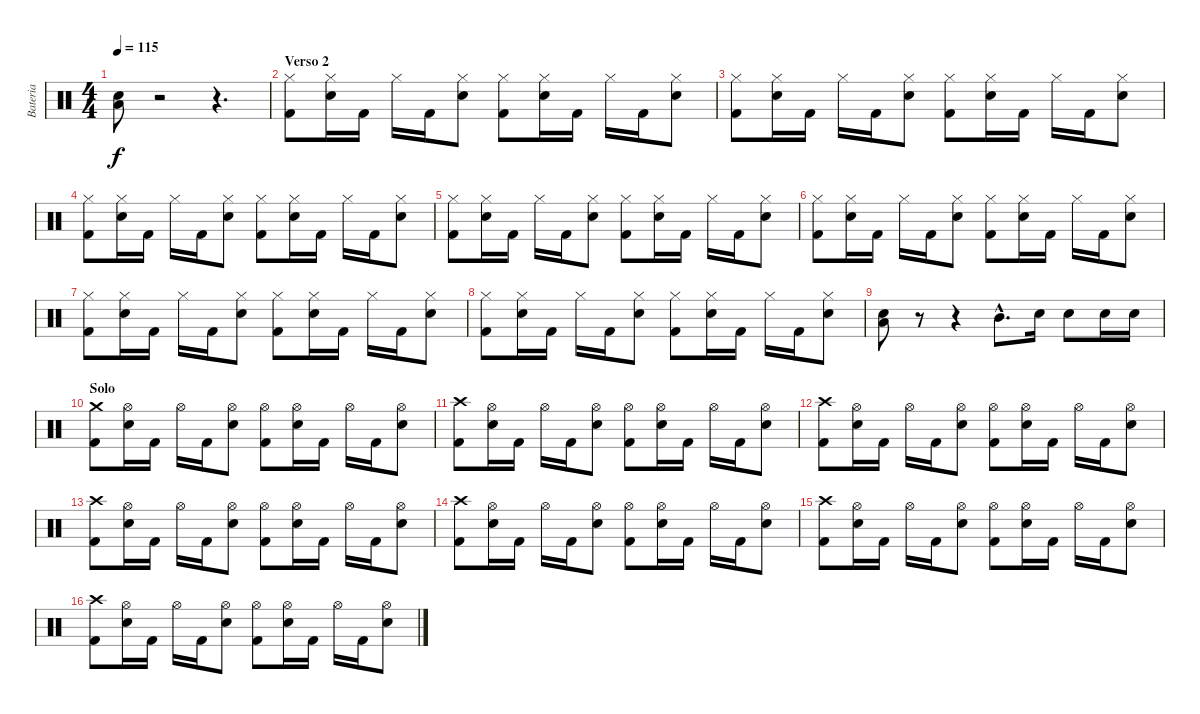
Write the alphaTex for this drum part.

\track ("Bateria" "Bateria") {instrument percussion}
\staff {score}
\articulation defaults
\ts (4 4)
\tempo 115
\clef neutral
\ks c
("Low Tom (hit)" "Electric Snare (hit)").8{dy f} r.2 r.4{d} |
\section ("" "Verso 2")
("Hi-Hat (closed)" "Kick (hit) 2").8 ("Hi-Hat (closed)" "Electric Snare (hit)").16 "Kick (hit) 2".16 "Hi-Hat (closed)".16 "Kick (hit) 2".16 ("Hi-Hat (closed)" "Electric Snare (hit)").8 ("Hi-Hat (closed)" "Kick (hit) 2").8 ("Hi-Hat (closed)" "Electric Snare (hit)").16 "Kick (hit) 2".16 "Hi-Hat (closed)".16 "Kick (hit) 2".16 ("Hi-Hat (closed)" "Electric Snare (hit)").8 |
("Hi-Hat (closed)" "Kick (hit) 2").8 ("Hi-Hat (closed)" "Electric Snare (hit)").16 "Kick (hit) 2".16 "Hi-Hat (closed)".16 "Kick (hit) 2".16 ("Hi-Hat (closed)" "Electric Snare (hit)").8 ("Hi-Hat (closed)" "Kick (hit) 2").8 ("Hi-Hat (closed)" "Electric Snare (hit)").16 "Kick (hit) 2".16 "Hi-Hat (closed)".16 "Kick (hit) 2".16 ("Hi-Hat (closed)" "Electric Snare (hit)").8 |
("Hi-Hat (closed)" "Kick (hit) 2").8 ("Hi-Hat (closed)" "Electric Snare (hit)").16 "Kick (hit) 2".16 "Hi-Hat (closed)".16 "Kick (hit) 2".16 ("Hi-Hat (closed)" "Electric Snare (hit)").8 ("Hi-Hat (closed)" "Kick (hit) 2").8 ("Hi-Hat (closed)" "Electric Snare (hit)").16 "Kick (hit) 2".16 "Hi-Hat (closed)".16 "Kick (hit) 2".16 ("Hi-Hat (closed)" "Electric Snare (hit)").8 |
("Hi-Hat (closed)" "Kick (hit) 2").8 ("Hi-Hat (closed)" "Electric Snare (hit)").16 "Kick (hit) 2".16 "Hi-Hat (closed)".16 "Kick (hit) 2".16 ("Hi-Hat (closed)" "Electric Snare (hit)").8 ("Hi-Hat (closed)" "Kick (hit) 2").8 ("Hi-Hat (closed)" "Electric Snare (hit)").16 "Kick (hit) 2".16 "Hi-Hat (closed)".16 "Kick (hit) 2".16 ("Hi-Hat (closed)" "Electric Snare (hit)").8 |
("Hi-Hat (closed)" "Kick (hit) 2").8 ("Hi-Hat (closed)" "Electric Snare (hit)").16 "Kick (hit) 2".16 "Hi-Hat (closed)".16 "Kick (hit) 2".16 ("Hi-Hat (closed)" "Electric Snare (hit)").8 ("Hi-Hat (closed)" "Kick (hit) 2").8 ("Hi-Hat (closed)" "Electric Snare (hit)").16 "Kick (hit) 2".16 "Hi-Hat (closed)".16 "Kick (hit) 2".16 ("Hi-Hat (closed)" "Electric Snare (hit)").8 |
("Hi-Hat (closed)" "Kick (hit) 2").8 ("Hi-Hat (closed)" "Electric Snare (hit)").16 "Kick (hit) 2".16 "Hi-Hat (closed)".16 "Kick (hit) 2".16 ("Hi-Hat (closed)" "Electric Snare (hit)").8 ("Hi-Hat (closed)" "Kick (hit) 2").8 ("Hi-Hat (closed)" "Electric Snare (hit)").16 "Kick (hit) 2".16 "Hi-Hat (closed)".16 "Kick (hit) 2".16 ("Hi-Hat (closed)" "Electric Snare (hit)").8 |
("Hi-Hat (closed)" "Kick (hit) 2").8 ("Hi-Hat (closed)" "Electric Snare (hit)").16 "Kick (hit) 2".16 "Hi-Hat (closed)".16 "Kick (hit) 2".16 ("Hi-Hat (closed)" "Electric Snare (hit)").8 ("Hi-Hat (closed)" "Kick (hit) 2").8 ("Hi-Hat (closed)" "Electric Snare (hit)").16 "Kick (hit) 2".16 "Hi-Hat (closed)".16 "Kick (hit) 2".16 ("Hi-Hat (closed)" "Electric Snare (hit)").8 |
("Low Tom (hit)" "Electric Snare (hit)").8 r.8 r.4 "Mid Tom (hit)"{hac}.8{d} "Electric Snare (hit)".16 "Electric Snare (hit)".8 "Electric Snare (hit)".16 "Electric Snare (hit)".16 |
\section ("" "Solo")
("Crash medium (hit)" "Kick (hit) 2").8 ("Hi-Hat (open)" "Electric Snare (hit)").16 "Kick (hit) 2".16 "Hi-Hat (open)".16 "Kick (hit) 2".16 ("Hi-Hat (open)" "Electric Snare (hit)").8 ("Hi-Hat (open)" "Kick (hit) 2").8 ("Hi-Hat (open)" "Electric Snare (hit)").16 "Kick (hit) 2".16 "Hi-Hat (open)".16 "Kick (hit) 2".16 ("Hi-Hat (open)" "Electric Snare (hit)").8 |
("Crash high (hit)" "Kick (hit) 2").8 ("Hi-Hat (open)" "Electric Snare (hit)").16 "Kick (hit) 2".16 "Hi-Hat (open)".16 "Kick (hit) 2".16 ("Hi-Hat (open)" "Electric Snare (hit)").8 ("Hi-Hat (open)" "Kick (hit) 2").8 ("Hi-Hat (open)" "Electric Snare (hit)").16 "Kick (hit) 2".16 "Hi-Hat (open)".16 "Kick (hit) 2".16 ("Hi-Hat (open)" "Electric Snare (hit)").8 |
("Crash high (hit)" "Kick (hit) 2").8 ("Hi-Hat (open)" "Electric Snare (hit)").16 "Kick (hit) 2".16 "Hi-Hat (open)".16 "Kick (hit) 2".16 ("Hi-Hat (open)" "Electric Snare (hit)").8 ("Hi-Hat (open)" "Kick (hit) 2").8 ("Hi-Hat (open)" "Electric Snare (hit)").16 "Kick (hit) 2".16 "Hi-Hat (open)".16 "Kick (hit) 2".16 ("Hi-Hat (open)" "Electric Snare (hit)").8 |
("Crash high (hit)" "Kick (hit) 2").8 ("Hi-Hat (open)" "Electric Snare (hit)").16 "Kick (hit) 2".16 "Hi-Hat (open)".16 "Kick (hit) 2".16 ("Hi-Hat (open)" "Electric Snare (hit)").8 ("Hi-Hat (open)" "Kick (hit) 2").8 ("Hi-Hat (open)" "Electric Snare (hit)").16 "Kick (hit) 2".16 "Hi-Hat (open)".16 "Kick (hit) 2".16 ("Hi-Hat (open)" "Electric Snare (hit)").8 |
("Crash high (hit)" "Kick (hit) 2").8 ("Hi-Hat (open)" "Electric Snare (hit)").16 "Kick (hit) 2".16 "Hi-Hat (open)".16 "Kick (hit) 2".16 ("Hi-Hat (open)" "Electric Snare (hit)").8 ("Hi-Hat (open)" "Kick (hit) 2").8 ("Hi-Hat (open)" "Electric Snare (hit)").16 "Kick (hit) 2".16 "Hi-Hat (open)".16 "Kick (hit) 2".16 ("Hi-Hat (open)" "Electric Snare (hit)").8 |
("Crash high (hit)" "Kick (hit) 2").8 ("Hi-Hat (open)" "Electric Snare (hit)").16 "Kick (hit) 2".16 "Hi-Hat (open)".16 "Kick (hit) 2".16 ("Hi-Hat (open)" "Electric Snare (hit)").8 ("Hi-Hat (open)" "Kick (hit) 2").8 ("Hi-Hat (open)" "Electric Snare (hit)").16 "Kick (hit) 2".16 "Hi-Hat (open)".16 "Kick (hit) 2".16 ("Hi-Hat (open)" "Electric Snare (hit)").8 |
("Crash high (hit)" "Kick (hit) 2").8 ("Hi-Hat (open)" "Electric Snare (hit)").16 "Kick (hit) 2".16 "Hi-Hat (open)".16 "Kick (hit) 2".16 ("Hi-Hat (open)" "Electric Snare (hit)").8 ("Hi-Hat (open)" "Kick (hit) 2").8 ("Hi-Hat (open)" "Electric Snare (hit)").16 "Kick (hit) 2".16 "Hi-Hat (open)".16 "Kick (hit) 2".16 ("Hi-Hat (open)" "Electric Snare (hit)").8
